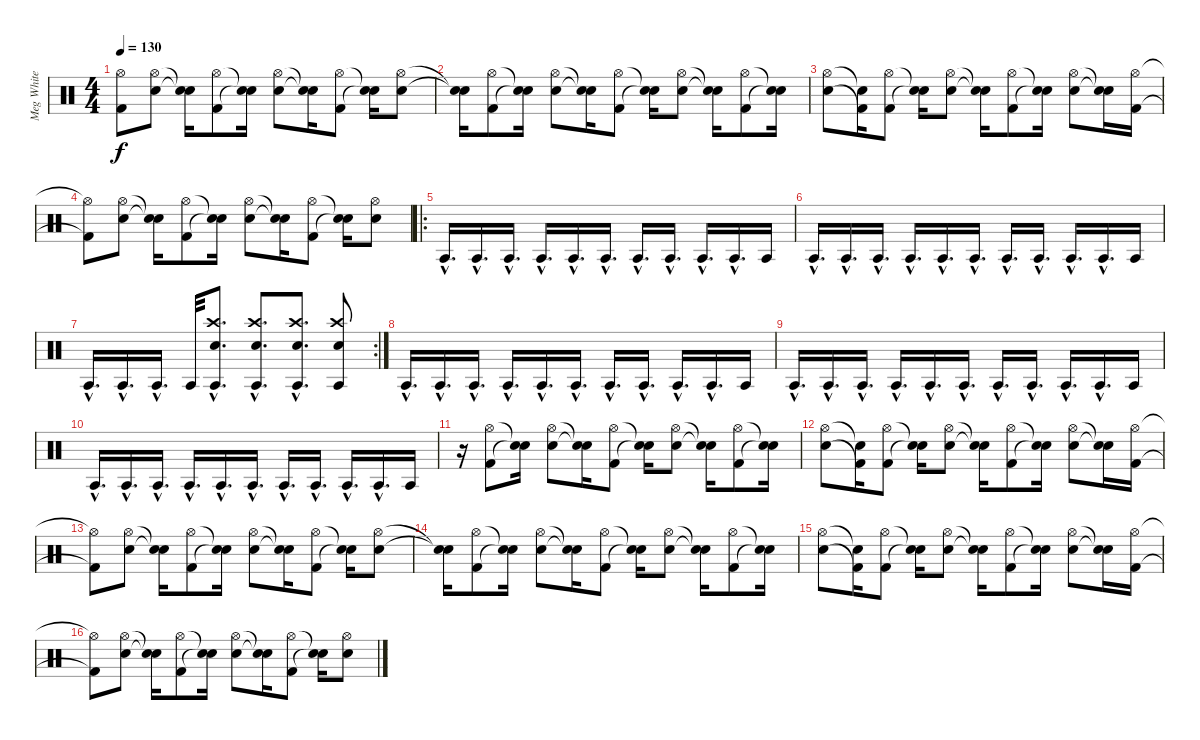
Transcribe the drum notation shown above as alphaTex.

\track ("Meg White" "Meg White") {instrument percussion}
\staff {score}
\articulation defaults
\ts (4 4)
\tempo 130
\clef neutral
\ks c
("Hi-Hat (open)"{t} "Kick (hit) 2"{t}).8{dy f} ("Hi-Hat (open)" "Snare (hit) 2").8 ("Snare (hit)"{t} "Snare (hit)"{t}).16 ("Hi-Hat (open)" "Kick (hit) 2").8 ("Snare (hit)"{t} "Snare (hit)"{t}).16 ("Hi-Hat (open)" "Snare (hit) 2").8 ("Snare (hit)"{t} "Snare (hit)"{t}).16 ("Hi-Hat (open)" "Kick (hit) 2").8 ("Snare (hit)"{t} "Snare (hit)"{t}).16 ("Hi-Hat (open)" "Snare (hit) 2").8 |
("Snare (hit)"{t} "Snare (hit)"{t}).16 ("Hi-Hat (open)" "Kick (hit) 2").8 ("Snare (hit)"{t} "Snare (hit)"{t}).16 ("Hi-Hat (open)" "Snare (hit) 2").8 ("Snare (hit)"{t} "Snare (hit)"{t}).16 ("Hi-Hat (open)" "Kick (hit) 2").8 ("Snare (hit)"{t} "Snare (hit)"{t}).16 ("Hi-Hat (open)" "Snare (hit) 2").8 ("Snare (hit)"{t} "Snare (hit)"{t}).16 ("Hi-Hat (open)" "Kick (hit) 2").8 ("Snare (hit)"{t} "Snare (hit)"{t}).16 |
("Hi-Hat (open)" "Snare (hit) 2").8 ("Snare (hit)"{t} "Kick (hit) 2"{t}).16 ("Hi-Hat (open)" "Kick (hit) 2").8 ("Snare (hit)"{t} "Snare (hit) 2"{t}).16 ("Hi-Hat (open)" "Snare (hit) 2").8 ("Snare (hit)"{t} "Snare (hit)"{t}).16 ("Hi-Hat (open)" "Kick (hit) 2").8 ("Snare (hit)"{t} "Snare (hit)"{t}).16 ("Hi-Hat (open)" "Snare (hit) 2").8 ("Snare (hit)"{t} "Snare (hit)"{t}).16 ("Hi-Hat (open)" "Kick (hit) 2").16 |
("Hi-Hat (open)"{t} "Kick (hit) 2"{t}).8 ("Hi-Hat (open)" "Snare (hit) 2").8 ("Snare (hit)"{t} "Snare (hit)"{t}).16 ("Hi-Hat (open)" "Kick (hit) 2").8 ("Snare (hit)"{t} "Snare (hit)"{t}).16 ("Hi-Hat (open)" "Snare (hit) 2").8 ("Snare (hit)"{t} "Snare (hit)"{t}).16 ("Hi-Hat (open)" "Kick (hit) 2").8 ("Snare (hit)"{t} "Snare (hit)"{t}).16 ("Hi-Hat (open)" "Snare (hit) 2").8 |
\ro "Agogo tow (hit)"{hac}.16{d} "Agogo tow (hit)"{hac}.16{d} "Agogo tow (hit)"{hac}.16{d} "Agogo tow (hit)"{hac}.16{d} "Agogo tow (hit)"{hac}.16{d} "Agogo tow (hit)"{hac}.16{d} "Agogo tow (hit)"{hac}.16{d} "Agogo tow (hit)"{hac}.16{d} "Agogo tow (hit)"{hac}.16{d} "Agogo tow (hit)"{hac}.16{d} "Agogo tow (hit)".16
|
"Agogo tow (hit)"{hac}.16{d} "Agogo tow (hit)"{hac}.16{d} "Agogo tow (hit)"{hac}.16{d} "Agogo tow (hit)"{hac}.16{d} "Agogo tow (hit)"{hac}.16{d} "Agogo tow (hit)"{hac}.16{d} "Agogo tow (hit)"{hac}.16{d} "Agogo tow (hit)"{hac}.16{d} "Agogo tow (hit)"{hac}.16{d} "Agogo tow (hit)"{hac}.16{d} "Agogo tow (hit)".16 |
\rc 2 "Agogo tow (hit)"{hac}.16{d} "Agogo tow (hit)"{hac}.16{d} "Agogo tow (hit)"{hac}.16{d} "Agogo tow (hit)".32
("Agogo tow (hit)"{hac} "Crash high (hit)"{hac} "Electric Snare (hit)"{hac}).8{d} ("Agogo tow (hit)"{hac} "Crash high (hit)"{hac} "Electric Snare (hit)"{hac}).8{d} ("Agogo tow (hit)"{hac} "Crash high (hit)"{hac} "Electric Snare (hit)"{hac}).8{d} ("Agogo tow (hit)" "Crash high (hit)" "Electric Snare (hit)").8 |
"Agogo tow (hit)"{hac}.16{d} "Agogo tow (hit)"{hac}.16{d} "Agogo tow (hit)"{hac}.16{d} "Agogo tow (hit)"{hac}.16{d} "Agogo tow (hit)"{hac}.16{d} "Agogo tow (hit)"{hac}.16{d} "Agogo tow (hit)"{hac}.16{d} "Agogo tow (hit)"{hac}.16{d} "Agogo tow (hit)"{hac}.16{d} "Agogo tow (hit)"{hac}.16{d} "Agogo tow (hit)".16 |
"Agogo tow (hit)"{hac}.16{d} "Agogo tow (hit)"{hac}.16{d} "Agogo tow (hit)"{hac}.16{d} "Agogo tow (hit)"{hac}.16{d} "Agogo tow (hit)"{hac}.16{d} "Agogo tow (hit)"{hac}.16{d} "Agogo tow (hit)"{hac}.16{d} "Agogo tow (hit)"{hac}.16{d} "Agogo tow (hit)"{hac}.16{d} "Agogo tow (hit)"{hac}.16{d} "Agogo tow (hit)".16 |
"Agogo tow (hit)"{hac}.16{d} "Agogo tow (hit)"{hac}.16{d} "Agogo tow (hit)"{hac}.16{d} "Agogo tow (hit)"{hac}.16{d} "Agogo tow (hit)"{hac}.16{d} "Agogo tow (hit)"{hac}.16{d} "Agogo tow (hit)"{hac}.16{d} "Agogo tow (hit)"{hac}.16{d} "Agogo tow (hit)"{hac}.16{d} "Agogo tow (hit)"{hac}.16{d} "Agogo tow (hit)".16 |
r.16 ("Hi-Hat (open)" "Kick (hit) 2").8 ("Snare (hit)"{t} "Snare (hit)"{t}).16 ("Hi-Hat (open)" "Snare (hit) 2").8 ("Snare (hit)"{t} "Snare (hit)"{t}).16 ("Hi-Hat (open)" "Kick (hit) 2").8 ("Snare (hit)"{t} "Snare (hit)"{t}).16 ("Hi-Hat (open)" "Snare (hit) 2").8 ("Snare (hit)"{t} "Snare (hit)"{t}).16 ("Hi-Hat (open)" "Kick (hit) 2").8 ("Snare (hit)"{t} "Snare (hit)"{t}).16 |
("Hi-Hat (open)" "Snare (hit) 2").8 ("Snare (hit)"{t} "Kick (hit) 2"{t}).16 ("Hi-Hat (open)" "Kick (hit) 2").8 ("Snare (hit)"{t} "Snare (hit) 2"{t}).16 ("Hi-Hat (open)" "Snare (hit) 2").8 ("Snare (hit)"{t} "Snare (hit)"{t}).16 ("Hi-Hat (open)" "Kick (hit) 2").8 ("Snare (hit)"{t} "Snare (hit)"{t}).16 ("Hi-Hat (open)" "Snare (hit) 2").8 ("Snare (hit)"{t} "Snare (hit)"{t}).16 ("Hi-Hat (open)" "Kick (hit) 2").16 |
("Hi-Hat (open)"{t} "Kick (hit) 2"{t}).8 ("Hi-Hat (open)" "Snare (hit) 2").8 ("Snare (hit)"{t} "Snare (hit)"{t}).16 ("Hi-Hat (open)" "Kick (hit) 2").8 ("Snare (hit)"{t} "Snare (hit)"{t}).16 ("Hi-Hat (open)" "Snare (hit) 2").8 ("Snare (hit)"{t} "Snare (hit)"{t}).16 ("Hi-Hat (open)" "Kick (hit) 2").8 ("Snare (hit)"{t} "Snare (hit)"{t}).16 ("Hi-Hat (open)" "Snare (hit) 2").8 |
("Snare (hit)"{t} "Snare (hit)"{t}).16 ("Hi-Hat (open)" "Kick (hit) 2").8 ("Snare (hit)"{t} "Snare (hit)"{t}).16 ("Hi-Hat (open)" "Snare (hit) 2").8 ("Snare (hit)"{t} "Snare (hit)"{t}).16 ("Hi-Hat (open)" "Kick (hit) 2").8 ("Snare (hit)"{t} "Snare (hit)"{t}).16 ("Hi-Hat (open)" "Snare (hit) 2").8 ("Snare (hit)"{t} "Snare (hit)"{t}).16 ("Hi-Hat (open)" "Kick (hit) 2").8 ("Snare (hit)"{t} "Snare (hit)"{t}).16 |
("Hi-Hat (open)" "Snare (hit) 2").8 ("Snare (hit)"{t} "Kick (hit) 2"{t}).16 ("Hi-Hat (open)" "Kick (hit) 2").8 ("Snare (hit)"{t} "Snare (hit) 2"{t}).16 ("Hi-Hat (open)" "Snare (hit) 2").8 ("Snare (hit)"{t} "Snare (hit)"{t}).16 ("Hi-Hat (open)" "Kick (hit) 2").8 ("Snare (hit)"{t} "Snare (hit)"{t}).16 ("Hi-Hat (open)" "Snare (hit) 2").8 ("Snare (hit)"{t} "Snare (hit)"{t}).16 ("Hi-Hat (open)" "Kick (hit) 2").16 |
("Hi-Hat (open)"{t} "Kick (hit) 2"{t}).8 ("Hi-Hat (open)" "Snare (hit) 2").8 ("Snare (hit)"{t} "Snare (hit)"{t}).16 ("Hi-Hat (open)" "Kick (hit) 2").8 ("Snare (hit)"{t} "Snare (hit)"{t}).16 ("Hi-Hat (open)" "Snare (hit) 2").8 ("Snare (hit)"{t} "Snare (hit)"{t}).16 ("Hi-Hat (open)" "Kick (hit) 2").8 ("Snare (hit)"{t} "Snare (hit)"{t}).16 ("Hi-Hat (open)" "Snare (hit) 2").8
